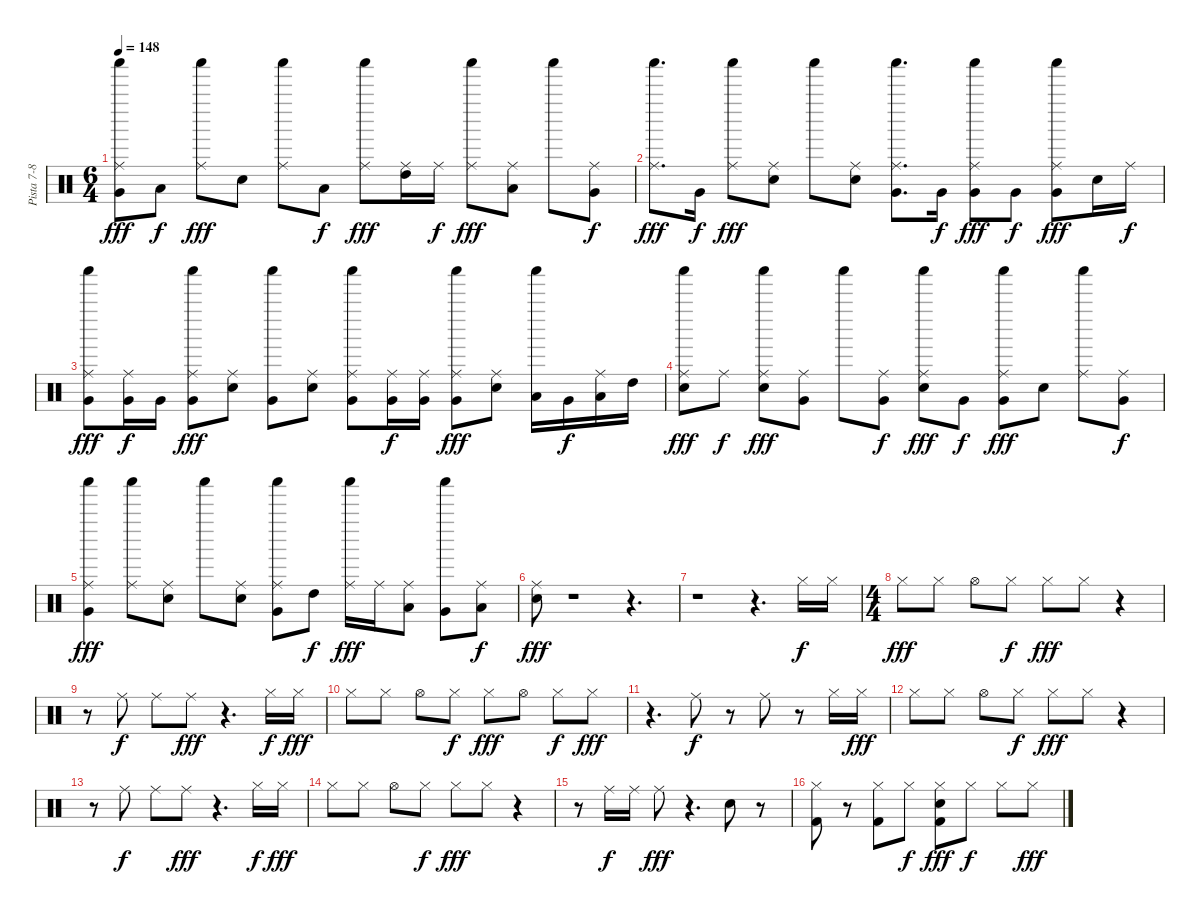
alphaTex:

\track ("Pista 7-8" "Pista 7-8") {instrument percussion}
\staff {score}
\articulation defaults
\ts (6 4)
\tempo 148
\clef neutral
\ks c
("Shaker (hit)" "Very Low Tom (hit)" "Ride (middle)").8{dy fff} "Low Tom (hit)".8{dy f} ("Shaker (hit)" "Ride (middle)").8{dy fff} "Electric Snare (hit)".8 ("Shaker (hit)" "Ride (middle)").8 "Low Tom (hit)".8{dy f} ("Shaker (hit)" "Ride (middle)").8{dy fff} ("High Tom (hit)" "Ride (middle)").16 "Ride (middle)".16{dy f} ("Shaker (hit)" "Ride (middle)").8{dy fff} ("Low Tom (hit)" "Ride (middle)").8 "Shaker (hit)".8 ("Very Low Tom (hit)" "Ride (middle)").8{dy f} |
("Shaker (hit)" "Ride (middle)").8{d dy fff} "Very Low Tom (hit)".16{dy f} ("Shaker (hit)" "Ride (middle)").8{dy fff} ("Electric Snare (hit)" "Ride (middle)").8 "Shaker (hit)".8 ("Snare (hit) 2" "Ride (middle)").8 ("Shaker (hit)" "Very Low Tom (hit)" "Ride (middle)").8{d} "Very Low Tom (hit)".16{dy f} ("Shaker (hit)" "Very Low Tom (hit)" "Ride (middle)").8{dy fff} "Very Low Tom (hit)".8{dy f} ("Shaker (hit)" "Very Low Tom (hit)" "Ride (middle)").8{dy fff} "Snare (hit) 2".16 "Ride (middle)".16{dy f} |
("Shaker (hit)" "Very Low Tom (hit)" "Ride (middle)").8{dy fff} ("Very Low Tom (hit)" "Ride (middle)").16{dy f} "Very Low Tom (hit)".16 ("Shaker (hit)" "Very Low Tom (hit)" "Ride (middle)").8{dy fff} ("Electric Snare (hit)" "Ride (middle)").8 ("Shaker (hit)" "Very Low Tom (hit)").8 ("Snare (hit) 2" "Ride (middle)").8 ("Shaker (hit)" "Very Low Tom (hit)" "Ride (middle)").8 ("Very Low Tom (hit)" "Ride (middle)").16{dy f} ("Very Low Tom (hit)" "Ride (middle)").16 ("Shaker (hit)" "Very Low Tom (hit)" "Ride (middle)").8{dy fff} ("Electric Snare (hit)" "Ride (middle)").8 ("Shaker (hit)" "Low Floor Tom (hit)").16 "Very Low Tom (hit)".16{dy f} ("Low Tom (hit)" "Ride (middle)").16 "High Tom (hit)".16 |
("Shaker (hit)" "Electric Snare (hit)" "Ride (middle)").8{dy fff} "Ride (middle)".8{dy f} ("Shaker (hit)" "Snare (hit) 2" "Ride (middle)").8{dy fff} ("Very Low Tom (hit)" "Ride (middle)").8 "Shaker (hit)".8 ("Very Low Tom (hit)" "Ride (middle)").8{dy f} ("Shaker (hit)" "Electric Snare (hit)" "Ride (middle)").8{dy fff} "Very Low Tom (hit)".8{dy f} ("Shaker (hit)" "Very Low Tom (hit)" "Ride (middle)").8{dy fff} "Snare (hit) 2".8 ("Shaker (hit)" "Ride (middle)").8 ("Very Low Tom (hit)" "Ride (middle)").8{dy f} |
("Shaker (hit)" "Very Low Tom (hit)" "Ride (middle)").4{dy fff} ("Shaker (hit)" "Ride (middle)").8 ("Electric Snare (hit)" "Ride (middle)").8 "Shaker (hit)".8 ("Snare (hit) 2" "Ride (middle)").8 ("Shaker (hit)" "Very Low Tom (hit)" "Ride (middle)").8 "High Tom (hit)".8{dy f} ("Shaker (hit)" "Ride (middle)").16{dy fff} "Ride (middle)".16 ("Low Tom (hit)" "Ride (middle)").8 ("Shaker (hit)" "Very Low Tom (hit)").8 ("Low Floor Tom (hit)" "Ride (middle)").8{dy f} |
("Snare (hit) 2" "Ride (middle)").8{dy fff} r.1 r.4{d} |
r.1 r.4{d} "Hi-Hat (closed)".16{dy f} "Hi-Hat (closed)".16 |
\ts (4 4)
"Hi-Hat (closed)".8{dy fff} "Hi-Hat (closed)".8 "Hi-Hat (open)".8 "Hi-Hat (closed)".8{dy f} "Hi-Hat (closed)".8{dy fff} "Hi-Hat (closed)".8 r.4 |
r.8 "Ride (middle)".8{dy f} "Ride (middle)".8 "Ride (middle)".8{dy fff} r.4{d} "Hi-Hat (closed)".16{dy f} "Hi-Hat (closed)".16{dy fff} |
"Hi-Hat (closed)".8 "Hi-Hat (closed)".8 "Hi-Hat (open)".8 "Hi-Hat (closed)".8{dy f} "Hi-Hat (closed)".8{dy fff} "Hi-Hat (open)".8 "Hi-Hat (closed)".8{dy f} "Hi-Hat (closed)".8{dy fff} |
r.4{d} "Ride (middle)".8{dy f} r.8 "Ride (middle)".8 r.8 "Hi-Hat (closed)".16 "Hi-Hat (closed)".16{dy fff} |
"Hi-Hat (closed)".8 "Hi-Hat (closed)".8 "Hi-Hat (open)".8 "Hi-Hat (closed)".8{dy f} "Hi-Hat (closed)".8{dy fff} "Hi-Hat (closed)".8 r.4 |
r.8 "Ride (middle)".8{dy f} "Ride (middle)".8 "Ride (middle)".8{dy fff} r.4{d} "Hi-Hat (closed)".16{dy f} "Hi-Hat (closed)".16{dy fff} |
"Hi-Hat (closed)".8 "Hi-Hat (closed)".8 "Hi-Hat (open)".8 "Hi-Hat (closed)".8{dy f} "Hi-Hat (closed)".8{dy fff} "Hi-Hat (closed)".8 r.4 |
r.8 "Ride (middle)".16{dy f} "Ride (middle)".16 "Ride (middle)".8{dy fff} r.4{d} "Electric Snare (hit)".8 r.8 |
("Hi-Hat (closed)" "Kick (hit) 2").8 r.8 ("Hi-Hat (closed)" "Kick (hit) 2").8 "Hi-Hat (closed)".8{dy f} ("Hi-Hat (closed)" "Electric Snare (hit)" "Kick (hit) 2").8{dy fff} "Hi-Hat (closed)".8{dy f} "Hi-Hat (closed)".8 "Hi-Hat (closed)".8{dy fff}
